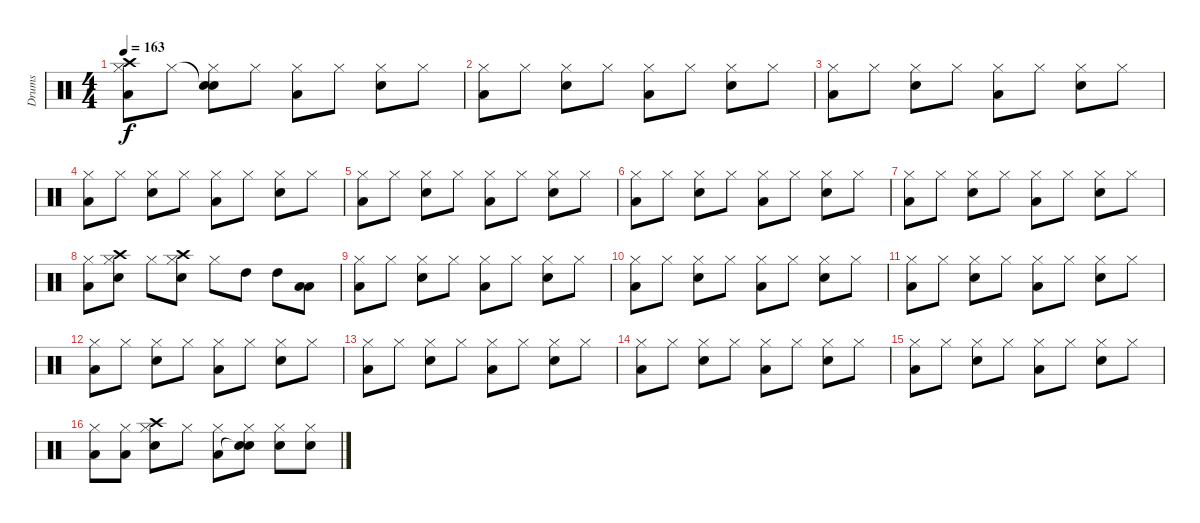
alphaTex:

\track ("Drums" "Drums") {instrument percussion}
\staff {score}
\articulation defaults
\ts (4 4)
\tempo 163
\clef neutral
\ks c
("Crash high (hit)" "Low Tom (hit)" "Hi-Hat (closed)").8{dy f} "Hi-Hat (closed)".8 ("Snare (hit)"{t} "Snare (hit) 2" "Hi-Hat (closed)").8 "Hi-Hat (closed)".8 ("Low Tom (hit)" "Hi-Hat (closed)").8 "Hi-Hat (closed)".8 ("Snare (hit) 2" "Hi-Hat (closed)").8 "Hi-Hat (closed)".8 |
("Low Tom (hit)" "Hi-Hat (closed)").8 "Hi-Hat (closed)".8 ("Snare (hit) 2" "Hi-Hat (closed)").8 "Hi-Hat (closed)".8 ("Low Tom (hit)" "Hi-Hat (closed)").8 "Hi-Hat (closed)".8 ("Snare (hit) 2" "Hi-Hat (closed)").8 "Hi-Hat (closed)".8 |
("Low Tom (hit)" "Hi-Hat (closed)").8 "Hi-Hat (closed)".8 ("Snare (hit) 2" "Hi-Hat (closed)").8 "Hi-Hat (closed)".8 ("Low Tom (hit)" "Hi-Hat (closed)").8 "Hi-Hat (closed)".8 ("Snare (hit) 2" "Hi-Hat (closed)").8 "Hi-Hat (closed)".8 |
("Low Tom (hit)" "Hi-Hat (closed)").8 "Hi-Hat (closed)".8 ("Snare (hit) 2" "Hi-Hat (closed)").8 "Hi-Hat (closed)".8 ("Low Tom (hit)" "Hi-Hat (closed)").8 "Hi-Hat (closed)".8 ("Snare (hit) 2" "Hi-Hat (closed)").8 "Hi-Hat (closed)".8 |
("Low Tom (hit)" "Hi-Hat (closed)").8 "Hi-Hat (closed)".8 ("Snare (hit) 2" "Hi-Hat (closed)").8 "Hi-Hat (closed)".8 ("Low Tom (hit)" "Hi-Hat (closed)").8 "Hi-Hat (closed)".8 ("Snare (hit) 2" "Hi-Hat (closed)").8 "Hi-Hat (closed)".8 |
("Low Tom (hit)" "Hi-Hat (closed)").8 "Hi-Hat (closed)".8 ("Snare (hit) 2" "Hi-Hat (closed)").8 "Hi-Hat (closed)".8 ("Low Tom (hit)" "Hi-Hat (closed)").8 "Hi-Hat (closed)".8 ("Snare (hit) 2" "Hi-Hat (closed)").8 "Hi-Hat (closed)".8 |
("Low Tom (hit)" "Hi-Hat (closed)").8 "Hi-Hat (closed)".8 ("Snare (hit) 2" "Hi-Hat (closed)").8 "Hi-Hat (closed)".8 ("Low Tom (hit)" "Hi-Hat (closed)").8 "Hi-Hat (closed)".8 ("Snare (hit) 2" "Hi-Hat (closed)").8 "Hi-Hat (closed)".8 |
("Low Tom (hit)" "Hi-Hat (closed)").8 ("Crash high (hit)" "Snare (hit) 2" "Hi-Hat (closed)").8 "Hi-Hat (closed)".8 ("Crash high (hit)" "Snare (hit) 2" "Hi-Hat (closed)").8 "Hi-Hat (closed)".8 "High Tom (hit)".8 "High Tom (hit)".8 ("Low Tom (hit)" "Low Tom (hit)").8 |
("Low Tom (hit)" "Hi-Hat (closed)").8 "Hi-Hat (closed)".8 ("Snare (hit) 2" "Hi-Hat (closed)").8 "Hi-Hat (closed)".8 ("Low Tom (hit)" "Hi-Hat (closed)").8 "Hi-Hat (closed)".8 ("Snare (hit) 2" "Hi-Hat (closed)").8 "Hi-Hat (closed)".8 |
("Low Tom (hit)" "Hi-Hat (closed)").8 "Hi-Hat (closed)".8 ("Snare (hit) 2" "Hi-Hat (closed)").8 "Hi-Hat (closed)".8 ("Low Tom (hit)" "Hi-Hat (closed)").8 "Hi-Hat (closed)".8 ("Snare (hit) 2" "Hi-Hat (closed)").8 "Hi-Hat (closed)".8 |
("Low Tom (hit)" "Hi-Hat (closed)").8 "Hi-Hat (closed)".8 ("Snare (hit) 2" "Hi-Hat (closed)").8 "Hi-Hat (closed)".8 ("Low Tom (hit)" "Hi-Hat (closed)").8 "Hi-Hat (closed)".8 ("Snare (hit) 2" "Hi-Hat (closed)").8 "Hi-Hat (closed)".8 |
("Low Tom (hit)" "Hi-Hat (closed)").8 "Hi-Hat (closed)".8 ("Snare (hit) 2" "Hi-Hat (closed)").8 "Hi-Hat (closed)".8 ("Low Tom (hit)" "Hi-Hat (closed)").8 "Hi-Hat (closed)".8 ("Snare (hit) 2" "Hi-Hat (closed)").8 "Hi-Hat (closed)".8 |
("Low Tom (hit)" "Hi-Hat (closed)").8 "Hi-Hat (closed)".8 ("Snare (hit) 2" "Hi-Hat (closed)").8 "Hi-Hat (closed)".8 ("Low Tom (hit)" "Hi-Hat (closed)").8 "Hi-Hat (closed)".8 ("Snare (hit) 2" "Hi-Hat (closed)").8 "Hi-Hat (closed)".8 |
("Low Tom (hit)" "Hi-Hat (closed)").8 "Hi-Hat (closed)".8 ("Snare (hit) 2" "Hi-Hat (closed)").8 "Hi-Hat (closed)".8 ("Low Tom (hit)" "Hi-Hat (closed)").8 "Hi-Hat (closed)".8 ("Snare (hit) 2" "Hi-Hat (closed)").8 "Hi-Hat (closed)".8 |
("Low Tom (hit)" "Hi-Hat (closed)").8 "Hi-Hat (closed)".8 ("Snare (hit) 2" "Hi-Hat (closed)").8 "Hi-Hat (closed)".8 ("Low Tom (hit)" "Hi-Hat (closed)").8 "Hi-Hat (closed)".8 ("Snare (hit) 2" "Hi-Hat (closed)").8 "Hi-Hat (closed)".8 |
("Low Tom (hit)" "Hi-Hat (closed)").8 ("Low Tom (hit)" "Hi-Hat (closed)").8 ("Crash high (hit)" "Snare (hit) 2" "Hi-Hat (closed)").8 "Hi-Hat (closed)".8 ("Low Tom (hit)" "Hi-Hat (closed)").8 ("Snare (hit)"{t} "Snare (hit) 2" "Hi-Hat (closed)").8 ("Snare (hit) 2" "Hi-Hat (closed)").8 ("Snare (hit) 2" "Hi-Hat (closed)").8
